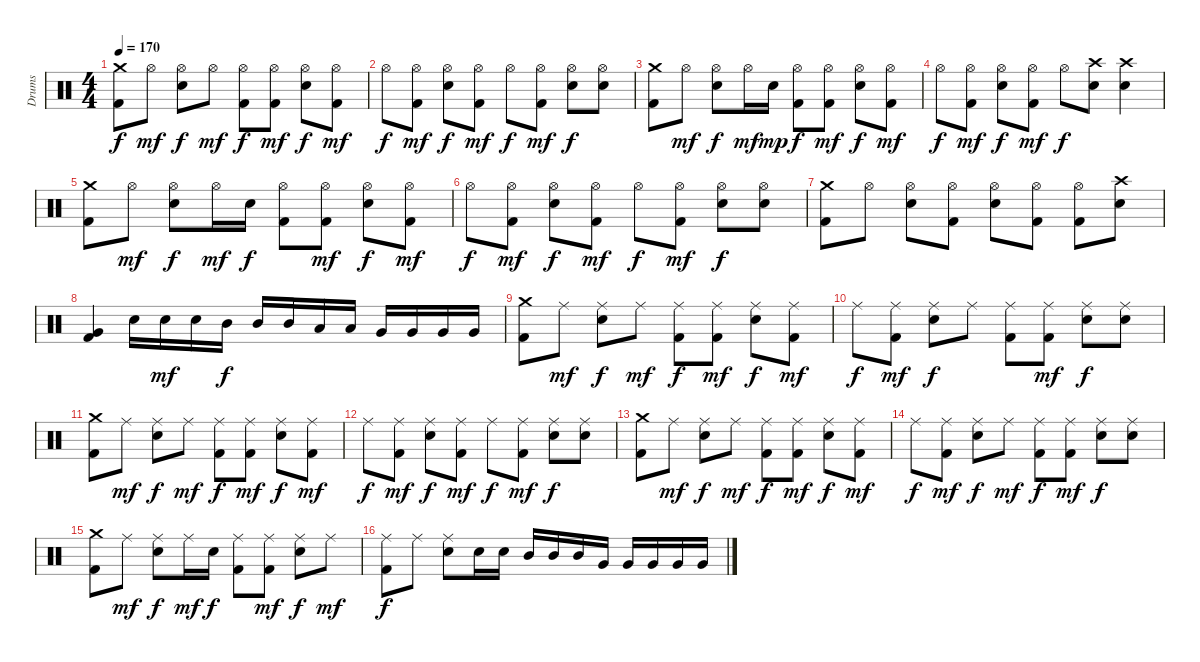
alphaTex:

\track ("Drums" "Drums") {instrument percussion}
\staff {score}
\articulation defaults
\ts (4 4)
\tempo 170
\clef neutral
\ks c
("Crash medium (hit)" "Kick (hit) 2").8{dy f} "Hi-Hat (open)".8{dy mf} ("Hi-Hat (open)" "Electric Snare (hit)").8{dy f} "Hi-Hat (open)".8{dy mf} ("Hi-Hat (open)" "Kick (hit) 2").8{dy f} ("Hi-Hat (open)" "Kick (hit) 2").8{dy mf} ("Hi-Hat (open)" "Electric Snare (hit)").8{dy f} ("Hi-Hat (open)" "Kick (hit) 2").8{dy mf} |
"Hi-Hat (open)".8{dy f} ("Hi-Hat (open)" "Kick (hit) 2").8{dy mf} ("Hi-Hat (open)" "Electric Snare (hit)").8{dy f} ("Hi-Hat (open)" "Kick (hit) 2").8{dy mf} "Hi-Hat (open)".8{dy f} ("Hi-Hat (open)" "Kick (hit) 2").8{dy mf} ("Hi-Hat (open)" "Electric Snare (hit)").8{dy f} ("Hi-Hat (open)" "Electric Snare (hit)").8 |
("Crash medium (hit)" "Kick (hit) 2").8 "Hi-Hat (open)".8{dy mf} ("Hi-Hat (open)" "Electric Snare (hit)").8{dy f} "Hi-Hat (open)".16{dy mf} "Electric Snare (hit)".16{dy mp} ("Hi-Hat (open)" "Kick (hit) 2").8{dy f} ("Hi-Hat (open)" "Kick (hit) 2").8{dy mf} ("Hi-Hat (open)" "Electric Snare (hit)").8{dy f} ("Hi-Hat (open)" "Kick (hit) 2").8{dy mf} |
"Hi-Hat (open)".8{dy f} ("Hi-Hat (open)" "Kick (hit) 2").8{dy mf} ("Hi-Hat (open)" "Electric Snare (hit)").8{dy f} ("Hi-Hat (open)" "Kick (hit) 2").8{dy mf} "Hi-Hat (open)".8{dy f} ("Crash high (hit)" "Electric Snare (hit)").8 ("Crash high (hit)" "Electric Snare (hit)").4 |
("Crash medium (hit)" "Kick (hit) 2").8 "Hi-Hat (open)".8{dy mf} ("Hi-Hat (open)" "Electric Snare (hit)").8{dy f} "Hi-Hat (open)".16{dy mf} "Electric Snare (hit)".16{dy f} ("Hi-Hat (open)" "Kick (hit) 2").8 ("Hi-Hat (open)" "Kick (hit) 2").8{dy mf} ("Hi-Hat (open)" "Electric Snare (hit)").8{dy f} ("Hi-Hat (open)" "Kick (hit) 2").8{dy mf} |
"Hi-Hat (open)".8{dy f} ("Hi-Hat (open)" "Kick (hit) 2").8{dy mf} ("Hi-Hat (open)" "Electric Snare (hit)").8{dy f} ("Hi-Hat (open)" "Kick (hit) 2").8{dy mf} "Hi-Hat (open)".8{dy f} ("Hi-Hat (open)" "Kick (hit) 2").8{dy mf} ("Hi-Hat (open)" "Electric Snare (hit)").8{dy f} ("Hi-Hat (open)" "Electric Snare (hit)").8 |
("Crash medium (hit)" "Kick (hit) 2").8 "Hi-Hat (open)".8 ("Hi-Hat (open)" "Electric Snare (hit)").8 ("Hi-Hat (open)" "Kick (hit) 2").8 ("Hi-Hat (open)" "Electric Snare (hit)").8 ("Hi-Hat (open)" "Kick (hit) 2").8 ("Hi-Hat (open)" "Kick (hit) 2").8 ("Crash high (hit)" "Electric Snare (hit)").8 |
("Very Low Tom (hit)" "Kick (hit) 2").4 "Electric Snare (hit)".16 "Electric Snare (hit)".16{dy mf} "Electric Snare (hit)".16 "Mid Tom (hit)".16{dy f} "Mid Tom (hit)".16 "Mid Tom (hit)".16 "Low Tom (hit)".16 "Low Tom (hit)".16 "Very Low Tom (hit)".16 "Very Low Tom (hit)".16 "Very Low Tom (hit)".16 "Very Low Tom (hit)".16 |
("Crash medium (hit)" "Kick (hit) 2").8 "Ride (middle)".8{dy mf} ("Ride (middle)" "Electric Snare (hit)").8{dy f} "Ride (middle)".8{dy mf} ("Ride (middle)" "Kick (hit) 2").8{dy f} ("Ride (middle)" "Kick (hit) 2").8{dy mf} ("Ride (middle)" "Electric Snare (hit)").8{dy f} ("Ride (middle)" "Kick (hit) 2").8{dy mf} |
"Ride (middle)".8{dy f} ("Ride (middle)" "Kick (hit) 2").8{dy mf} ("Ride (middle)" "Electric Snare (hit)").8{dy f} "Ride (middle)".8 ("Ride (middle)" "Kick (hit) 2").8 ("Ride (middle)" "Kick (hit) 2").8{dy mf} ("Ride (middle)" "Electric Snare (hit)").8{dy f} ("Ride (middle)" "Electric Snare (hit)").8 |
("Crash medium (hit)" "Kick (hit) 2").8 "Ride (middle)".8{dy mf} ("Ride (middle)" "Electric Snare (hit)").8{dy f} "Ride (middle)".8{dy mf} ("Ride (middle)" "Kick (hit) 2").8{dy f} ("Ride (middle)" "Kick (hit) 2").8{dy mf} ("Ride (middle)" "Electric Snare (hit)").8{dy f} ("Ride (middle)" "Kick (hit) 2").8{dy mf} |
"Ride (middle)".8{dy f} ("Ride (middle)" "Kick (hit) 2").8{dy mf} ("Ride (middle)" "Electric Snare (hit)").8{dy f} ("Ride (middle)" "Kick (hit) 2").8{dy mf} "Ride (middle)".8{dy f} ("Ride (middle)" "Kick (hit) 2").8{dy mf} ("Ride (middle)" "Electric Snare (hit)").8{dy f} ("Ride (middle)" "Electric Snare (hit)").8 |
("Crash medium (hit)" "Kick (hit) 2").8 "Ride (middle)".8{dy mf} ("Ride (middle)" "Electric Snare (hit)").8{dy f} "Ride (middle)".8{dy mf} ("Ride (middle)" "Kick (hit) 2").8{dy f} ("Ride (middle)" "Kick (hit) 2").8{dy mf} ("Ride (middle)" "Electric Snare (hit)").8{dy f} ("Ride (middle)" "Kick (hit) 2").8{dy mf} |
"Ride (middle)".8{dy f} ("Ride (middle)" "Kick (hit) 2").8{dy mf} ("Ride (middle)" "Electric Snare (hit)").8{dy f} "Ride (middle)".8{dy mf} ("Ride (middle)" "Kick (hit) 2").8{dy f} ("Ride (middle)" "Kick (hit) 2").8{dy mf} ("Ride (middle)" "Electric Snare (hit)").8{dy f} ("Ride (middle)" "Electric Snare (hit)").8 |
("Crash medium (hit)" "Kick (hit) 2").8 "Ride (middle)".8{dy mf} ("Ride (middle)" "Electric Snare (hit)").8{dy f} "Ride (middle)".16{dy mf} "Electric Snare (hit)".16{dy f} ("Ride (middle)" "Kick (hit) 2").8 ("Ride (middle)" "Kick (hit) 2").8{dy mf} ("Ride (middle)" "Electric Snare (hit)").8{dy f} "Ride (middle)".8{dy mf} |
("Ride (middle)" "Kick (hit) 2").8{dy f} "Ride (middle)".8 ("Ride (middle)" "Electric Snare (hit)").8 "Electric Snare (hit)".16 "Electric Snare (hit)".16 "Mid Tom (hit)".16 "Mid Tom (hit)".16 "Mid Tom (hit)".16 "Very Low Tom (hit)".16 "Very Low Tom (hit)".16 "Very Low Tom (hit)".16 "Very Low Tom (hit)".16 "Very Low Tom (hit)".16
